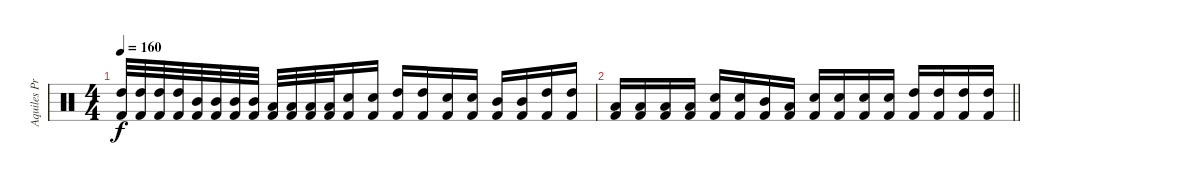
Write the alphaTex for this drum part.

\track ("Aquiles Priester" "Aquiles Pr") {instrument percussion}
\staff {score}
\articulation defaults
\ts (4 4)
\tempo 160
\clef neutral
\ks c
("High Tom (hit)" "Kick (hit) 2").32{dy f} ("High Tom (hit)" "Kick (hit) 2").32 ("High Tom (hit)" "Kick (hit) 2").32 ("High Tom (hit)" "Kick (hit) 2").32 ("Mid Tom (hit)" "Kick (hit) 2").32 ("Mid Tom (hit)" "Kick (hit) 2").32 ("Mid Tom (hit)" "Kick (hit) 2").32 ("Mid Tom (hit)" "Kick (hit) 2").32 ("Low Tom (hit)" "Kick (hit) 2").32 ("Low Tom (hit)" "Kick (hit) 2").32 ("Low Tom (hit)" "Kick (hit) 2").32 ("Low Tom (hit)" "Kick (hit) 2").32 ("Electric Snare (hit)" "Kick (hit) 2").16 ("Electric Snare (hit)" "Kick (hit) 2").16 ("High Tom (hit)" "Kick (hit) 2").16 ("High Tom (hit)" "Kick (hit) 2").16 ("Electric Snare (hit)" "Kick (hit) 2").16 ("Electric Snare (hit)" "Kick (hit) 2").16 ("Mid Tom (hit)" "Kick (hit) 2").16 ("Mid Tom (hit)" "Kick (hit) 2").16 ("High Tom (hit)" "Kick (hit) 2").16 ("High Tom (hit)" "Kick (hit) 2").16 |
\barLineRight lightlight
("Low Tom (hit)" "Kick (hit) 2").16 ("Low Tom (hit)" "Kick (hit) 2").16 ("Low Tom (hit)" "Kick (hit) 2").16 ("Low Tom (hit)" "Kick (hit) 2").16 ("Electric Snare (hit)" "Kick (hit) 2").16 ("Electric Snare (hit)" "Kick (hit) 2").16 ("Mid Tom (hit)" "Kick (hit) 2").16 ("Low Tom (hit)" "Kick (hit) 2").16 ("Electric Snare (hit)" "Kick (hit) 2").16 ("Electric Snare (hit)" "Kick (hit) 2").16 ("Electric Snare (hit)" "Kick (hit) 2").16 ("Electric Snare (hit)" "Kick (hit) 2").16 ("High Tom (hit)" "Kick (hit) 2").16 ("High Tom (hit)" "Kick (hit) 2").16 ("High Tom (hit)" "Kick (hit) 2").16 ("High Tom (hit)" "Kick (hit) 2").16
